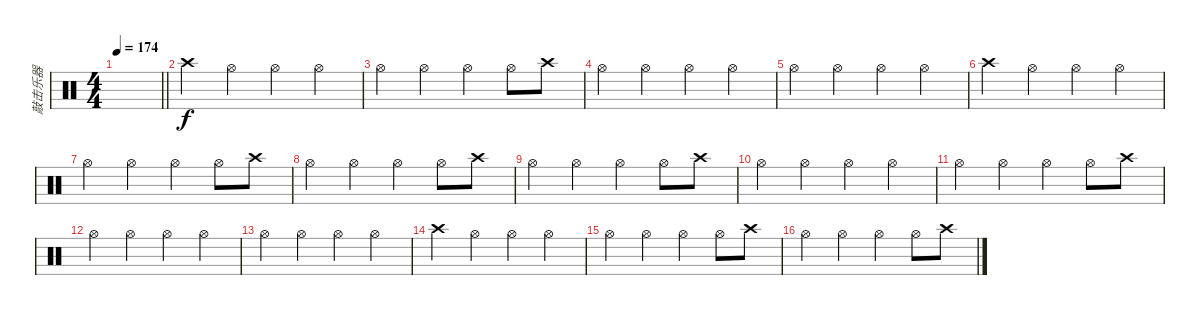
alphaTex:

\track ("敲击乐器" "敲击乐器") {instrument percussion}
\staff {score}
\articulation defaults
\ts (4 4)
\tempo 174
\clef neutral
\barLineRight lightlight
\ks c
|
"Crash high (hit)".4 "Hi-Hat (open)".4 "Hi-Hat (open)".4 "Hi-Hat (open)".4 |
"Hi-Hat (open)".4 "Hi-Hat (open)".4 "Hi-Hat (open)".4 "Hi-Hat (open)".8 "Crash high (hit)".8 |
"Hi-Hat (open)".4 "Hi-Hat (open)".4 "Hi-Hat (open)".4 "Hi-Hat (open)".4 |
"Hi-Hat (open)".4 "Hi-Hat (open)".4 "Hi-Hat (open)".4 "Hi-Hat (open)".4 |
"Crash high (hit)".4 "Hi-Hat (open)".4 "Hi-Hat (open)".4 "Hi-Hat (open)".4 |
"Hi-Hat (open)".4 "Hi-Hat (open)".4 "Hi-Hat (open)".4 "Hi-Hat (open)".8 "Crash high (hit)".8 |
"Hi-Hat (open)".4 "Hi-Hat (open)".4 "Hi-Hat (open)".4 "Hi-Hat (open)".8 "Crash high (hit)".8 |
"Hi-Hat (open)".4 "Hi-Hat (open)".4 "Hi-Hat (open)".4 "Hi-Hat (open)".8 "Crash high (hit)".8 |
"Hi-Hat (open)".4 "Hi-Hat (open)".4 "Hi-Hat (open)".4 "Hi-Hat (open)".4 |
"Hi-Hat (open)".4 "Hi-Hat (open)".4 "Hi-Hat (open)".4 "Hi-Hat (open)".8 "Crash high (hit)".8 |
"Hi-Hat (open)".4 "Hi-Hat (open)".4 "Hi-Hat (open)".4 "Hi-Hat (open)".4 |
"Hi-Hat (open)".4 "Hi-Hat (open)".4 "Hi-Hat (open)".4 "Hi-Hat (open)".4 |
"Crash high (hit)".4 "Hi-Hat (open)".4 "Hi-Hat (open)".4 "Hi-Hat (open)".4 |
"Hi-Hat (open)".4 "Hi-Hat (open)".4 "Hi-Hat (open)".4 "Hi-Hat (open)".8 "Crash high (hit)".8 |
"Hi-Hat (open)".4 "Hi-Hat (open)".4 "Hi-Hat (open)".4 "Hi-Hat (open)".8 "Crash high (hit)".8
